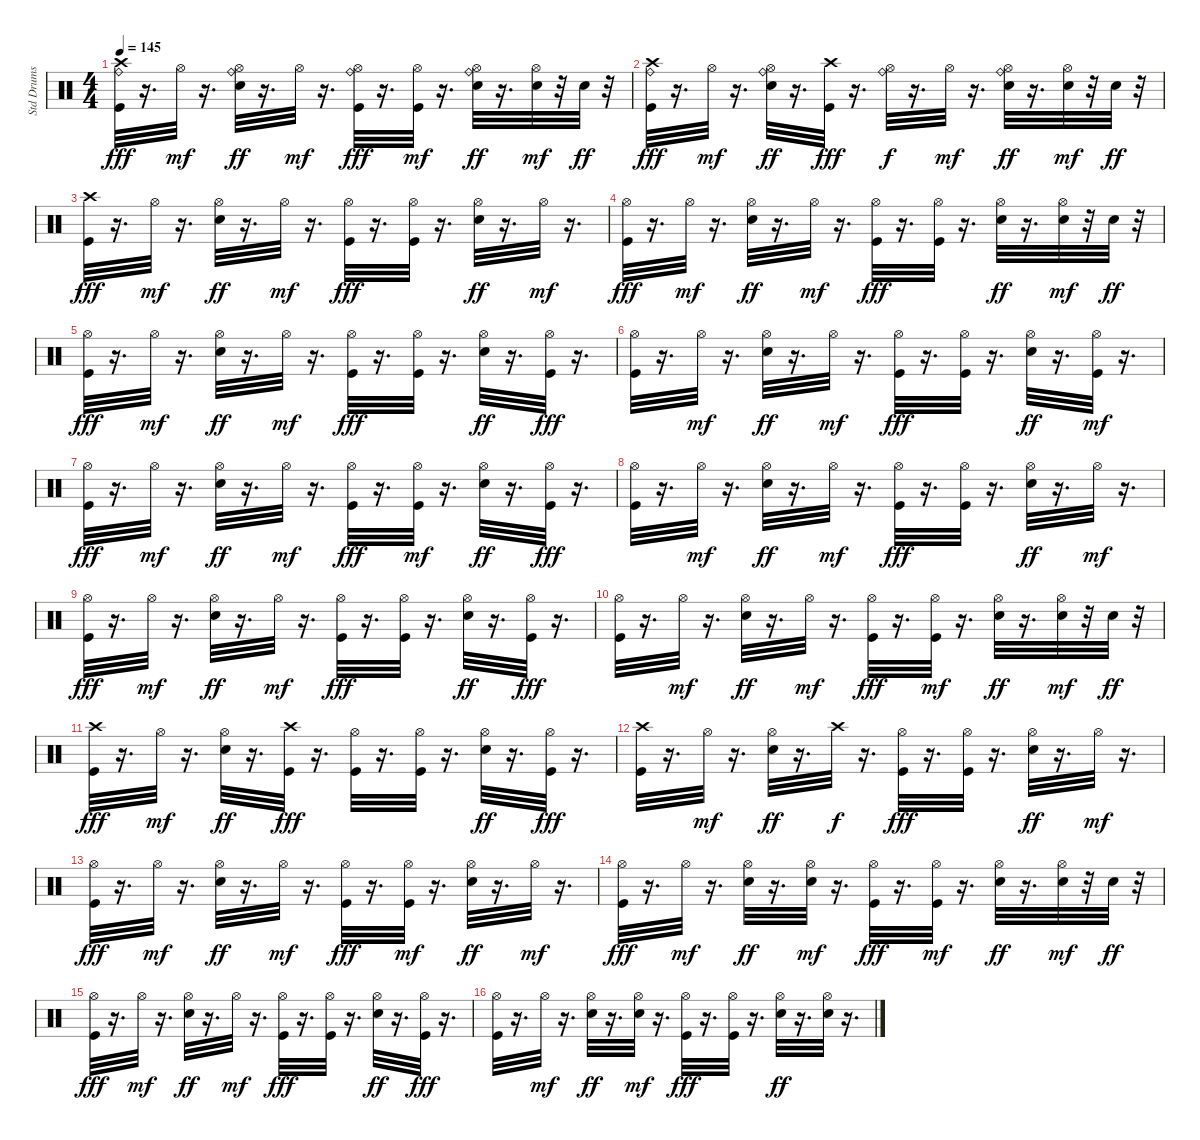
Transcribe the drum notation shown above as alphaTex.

\track ("Std Drums" "Std Drums") {instrument percussion}
\staff {score}
\articulation defaults
\ts (4 4)
\tempo 145
\clef neutral
\ks c
("Kick (hit)" "Crash high (hit)" "Ride (bell)").32{dy fff} r.16{d} "Hi-Hat (open)".32{dy mf} r.16{d} ("Hi-Hat (open)" "Ride (bell)" "Snare (hit) 2").32{dy ff} r.16{d} "Hi-Hat (open)".32{dy mf} r.16{d} ("Ride (bell)" "Hi-Hat (open)" "Kick (hit)").32{dy fff} r.16{d} ("Kick (hit)" "Hi-Hat (open)").32{dy mf} r.16{d} ("Ride (bell)" "Snare (hit) 2" "Hi-Hat (open)").32{dy ff} r.16{d} ("Snare (hit) 2" "Hi-Hat (open)").32{dy mf} r.32 "Snare (hit) 2".32{dy ff} r.32 |
("Kick (hit)" "Crash high (hit)" "Ride (bell)").32{dy fff} r.16{d} "Hi-Hat (open)".32{dy mf} r.16{d} ("Hi-Hat (open)" "Ride (bell)" "Snare (hit) 2").32{dy ff} r.16{d} ("Kick (hit)" "Crash high (hit)").32{dy fff} r.16{d} ("Ride (bell)" "Hi-Hat (open)").32{dy f} r.16{d} "Hi-Hat (open)".32{dy mf} r.16{d} ("Hi-Hat (open)" "Snare (hit) 2" "Ride (bell)").32{dy ff} r.16{d} ("Snare (hit) 2" "Hi-Hat (open)").32{dy mf} r.32 "Snare (hit) 2".32{dy ff} r.32 |
("Kick (hit)" "Crash high (hit)").32{dy fff} r.16{d} "Hi-Hat (open)".32{dy mf} r.16{d} ("Hi-Hat (open)" "Snare (hit) 2").32{dy ff} r.16{d} "Hi-Hat (open)".32{dy mf} r.16{d} ("Hi-Hat (open)" "Kick (hit)").32{dy fff} r.16{d} ("Hi-Hat (open)" "Kick (hit)").32 r.16{d} ("Hi-Hat (open)" "Snare (hit) 2").32{dy ff} r.16{d} "Hi-Hat (open)".32{dy mf} r.16{d} |
("Kick (hit)" "Hi-Hat (open)").32{dy fff} r.16{d} "Hi-Hat (open)".32{dy mf} r.16{d} ("Snare (hit) 2" "Hi-Hat (open)").32{dy ff} r.16{d} "Hi-Hat (open)".32{dy mf} r.16{d} ("Kick (hit)" "Hi-Hat (open)").32{dy fff} r.16{d} ("Hi-Hat (open)" "Kick (hit)").32 r.16{d} ("Hi-Hat (open)" "Snare (hit) 2").32{dy ff} r.16{d} ("Snare (hit) 2" "Hi-Hat (open)").32{dy mf} r.32 "Snare (hit) 2".32{dy ff} r.32 |
("Hi-Hat (open)" "Kick (hit)").32{dy fff} r.16{d} "Hi-Hat (open)".32{dy mf} r.16{d} ("Snare (hit) 2" "Hi-Hat (open)").32{dy ff} r.16{d} "Hi-Hat (open)".32{dy mf} r.16{d} ("Kick (hit)" "Hi-Hat (open)").32{dy fff} r.16{d} ("Hi-Hat (open)" "Kick (hit)").32 r.16{d} ("Hi-Hat (open)" "Snare (hit) 2").32{dy ff} r.16{d} ("Hi-Hat (open)" "Kick (hit)").32{dy fff} r.16{d} |
("Kick (hit)" "Hi-Hat (open)").32 r.16{d} "Hi-Hat (open)".32{dy mf} r.16{d} ("Hi-Hat (open)" "Snare (hit) 2").32{dy ff} r.16{d} "Hi-Hat (open)".32{dy mf} r.16{d} ("Hi-Hat (open)" "Kick (hit)").32{dy fff} r.16{d} ("Hi-Hat (open)" "Kick (hit)").32 r.16{d} ("Snare (hit) 2" "Hi-Hat (open)").32{dy ff} r.16{d} ("Kick (hit)" "Hi-Hat (open)").32{dy mf} r.16{d} |
("Hi-Hat (open)" "Kick (hit)").32{dy fff} r.16{d} "Hi-Hat (open)".32{dy mf} r.16{d} ("Hi-Hat (open)" "Snare (hit) 2").32{dy ff} r.16{d} "Hi-Hat (open)".32{dy mf} r.16{d} ("Kick (hit)" "Hi-Hat (open)").32{dy fff} r.16{d} ("Kick (hit)" "Hi-Hat (open)").32{dy mf} r.16{d} ("Snare (hit) 2" "Hi-Hat (open)").32{dy ff} r.16{d} ("Hi-Hat (open)" "Kick (hit)").32{dy fff} r.16{d} |
("Hi-Hat (open)" "Kick (hit)").32 r.16{d} "Hi-Hat (open)".32{dy mf} r.16{d} ("Snare (hit) 2" "Hi-Hat (open)").32{dy ff} r.16{d} "Hi-Hat (open)".32{dy mf} r.16{d} ("Hi-Hat (open)" "Kick (hit)").32{dy fff} r.16{d} ("Hi-Hat (open)" "Kick (hit)").32 r.16{d} ("Snare (hit) 2" "Hi-Hat (open)").32{dy ff} r.16{d} "Hi-Hat (open)".32{dy mf} r.16{d} |
("Kick (hit)" "Hi-Hat (open)").32{dy fff} r.16{d} "Hi-Hat (open)".32{dy mf} r.16{d} ("Hi-Hat (open)" "Snare (hit) 2").32{dy ff} r.16{d} "Hi-Hat (open)".32{dy mf} r.16{d} ("Kick (hit)" "Hi-Hat (open)").32{dy fff} r.16{d} ("Hi-Hat (open)" "Kick (hit)").32 r.16{d} ("Hi-Hat (open)" "Snare (hit) 2").32{dy ff} r.16{d} ("Hi-Hat (open)" "Kick (hit)").32{dy fff} r.16{d} |
("Hi-Hat (open)" "Kick (hit)").32 r.16{d} "Hi-Hat (open)".32{dy mf} r.16{d} ("Hi-Hat (open)" "Snare (hit) 2").32{dy ff} r.16{d} "Hi-Hat (open)".32{dy mf} r.16{d} ("Hi-Hat (open)" "Kick (hit)").32{dy fff} r.16{d} ("Kick (hit)" "Hi-Hat (open)").32{dy mf} r.16{d} ("Snare (hit) 2" "Hi-Hat (open)").32{dy ff} r.16{d} ("Snare (hit) 2" "Hi-Hat (open)").32{dy mf} r.32 "Snare (hit) 2".32{dy ff} r.32 |
("Crash high (hit)" "Kick (hit)").32{dy fff} r.16{d} "Hi-Hat (open)".32{dy mf} r.16{d} ("Hi-Hat (open)" "Snare (hit) 2").32{dy ff} r.16{d} ("Crash high (hit)" "Kick (hit)").32{dy fff} r.16{d} ("Kick (hit)" "Hi-Hat (open)").32 r.16{d} ("Hi-Hat (open)" "Kick (hit)").32 r.16{d} ("Hi-Hat (open)" "Snare (hit) 2").32{dy ff} r.16{d} ("Hi-Hat (open)" "Kick (hit)").32{dy fff} r.16{d} |
("Kick (hit)" "Crash high (hit)").32 r.16{d} "Hi-Hat (open)".32{dy mf} r.16{d} ("Hi-Hat (open)" "Snare (hit) 2").32{dy ff} r.16{d} "Crash high (hit)".32{dy f} r.16{d} ("Kick (hit)" "Hi-Hat (open)").32{dy fff} r.16{d} ("Hi-Hat (open)" "Kick (hit)").32 r.16{d} ("Snare (hit) 2" "Hi-Hat (open)").32{dy ff} r.16{d} "Hi-Hat (open)".32{dy mf} r.16{d} |
("Kick (hit)" "Hi-Hat (open)").32{dy fff} r.16{d} "Hi-Hat (open)".32{dy mf} r.16{d} ("Hi-Hat (open)" "Snare (hit) 2").32{dy ff} r.16{d} "Hi-Hat (open)".32{dy mf} r.16{d} ("Hi-Hat (open)" "Kick (hit)").32{dy fff} r.16{d} ("Kick (hit)" "Hi-Hat (open)").32{dy mf} r.16{d} ("Hi-Hat (open)" "Snare (hit) 2").32{dy ff} r.16{d} "Hi-Hat (open)".32{dy mf} r.16{d} |
("Hi-Hat (open)" "Kick (hit)").32{dy fff} r.16{d} "Hi-Hat (open)".32{dy mf} r.16{d} ("Hi-Hat (open)" "Snare (hit) 2").32{dy ff} r.16{d} ("Snare (hit) 2" "Hi-Hat (open)").32{dy mf} r.16{d} ("Hi-Hat (open)" "Kick (hit)").32{dy fff} r.16{d} ("Kick (hit)" "Hi-Hat (open)").32{dy mf} r.16{d} ("Hi-Hat (open)" "Snare (hit) 2").32{dy ff} r.16{d} ("Snare (hit) 2" "Hi-Hat (open)").32{dy mf} r.32 "Snare (hit) 2".32{dy ff} r.32 |
("Kick (hit)" "Hi-Hat (open)").32{dy fff} r.16{d} "Hi-Hat (open)".32{dy mf} r.16{d} ("Hi-Hat (open)" "Snare (hit) 2").32{dy ff} r.16{d} "Hi-Hat (open)".32{dy mf} r.16{d} ("Kick (hit)" "Hi-Hat (open)").32{dy fff} r.16{d} ("Hi-Hat (open)" "Kick (hit)").32 r.16{d} ("Hi-Hat (open)" "Snare (hit) 2").32{dy ff} r.16{d} ("Hi-Hat (open)" "Kick (hit)").32{dy fff} r.16{d} |
("Hi-Hat (open)" "Kick (hit)").32 r.16{d} "Hi-Hat (open)".32{dy mf} r.16{d} ("Snare (hit) 2" "Hi-Hat (open)").32{dy ff} r.16{d} ("Snare (hit) 2" "Hi-Hat (open)").32{dy mf} r.16{d} ("Kick (hit)" "Hi-Hat (open)").32{dy fff} r.16{d} ("Hi-Hat (open)" "Kick (hit)").32 r.16{d} ("Snare (hit) 2" "Hi-Hat (open)").32{dy ff} r.16{d} ("Hi-Hat (open)" "Snare (hit) 2").32 r.16{d}
